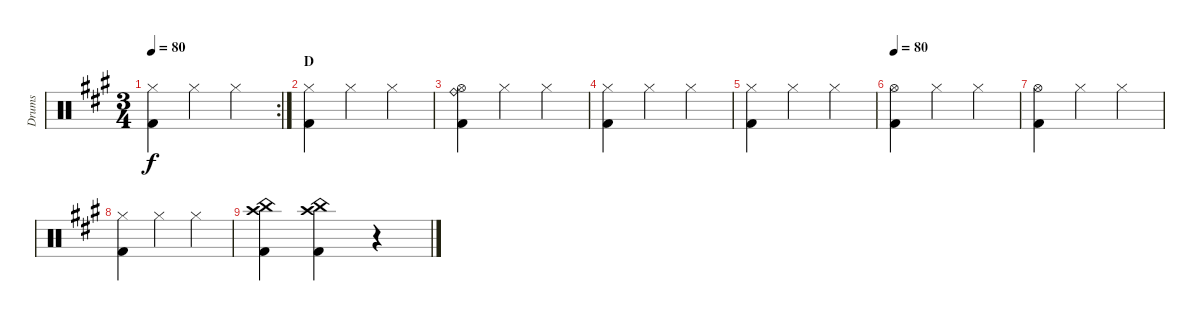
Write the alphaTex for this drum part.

\track ("Drums" "Drums") {instrument percussion}
\staff {score}
\articulation defaults
\rc 2
\ts (3 4)
\tempo 80
\clef neutral
\ks a
("Hi-Hat (closed)" "Kick (hit) 2").4{dy f} "Hi-Hat (closed)".4 "Hi-Hat (closed)".4 |
\section ("" "D")
("Hi-Hat (closed)" "Kick (hit) 2").4 "Hi-Hat (closed)".4 "Hi-Hat (closed)".4 |
("Ride (bell)" "Hi-Hat (open)" "Kick (hit) 2").4 "Hi-Hat (closed)".4 "Hi-Hat (closed)".4 |
("Hi-Hat (closed)" "Kick (hit) 2").4 "Hi-Hat (closed)".4 "Hi-Hat (closed)".4 |
("Hi-Hat (closed)" "Kick (hit) 2").4 "Hi-Hat (closed)".4 "Hi-Hat (closed)".4 |
\tempo 80
("Hi-Hat (open)" "Kick (hit) 2").4 "Hi-Hat (closed)".4 "Hi-Hat (closed)".4 |
("Hi-Hat (open)" "Kick (hit) 2").4 "Hi-Hat (closed)".4 "Hi-Hat (closed)".4 |
("Hi-Hat (closed)" "Kick (hit) 2").4 "Hi-Hat (closed)".4 "Hi-Hat (closed)".4 |
("China (hit)" "Crash high (hit)" "Kick (hit) 2").4 ("China (hit)" "Crash high (hit)" "Kick (hit) 2").4 r.4
